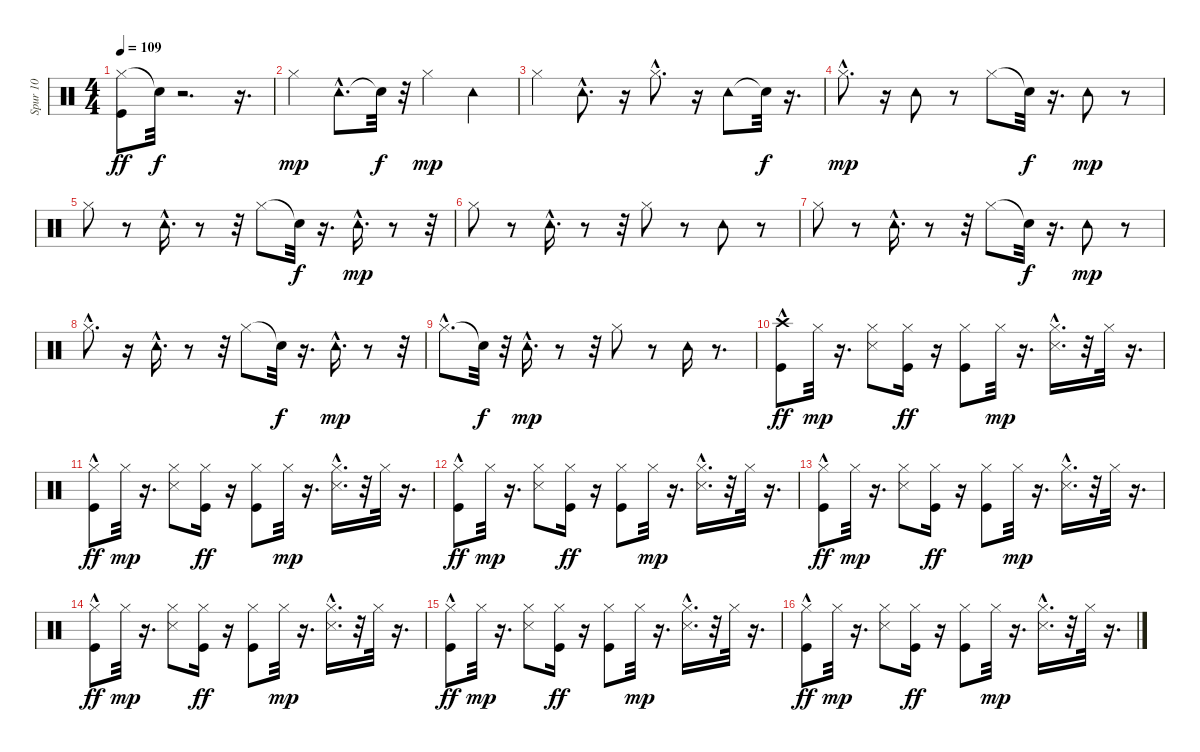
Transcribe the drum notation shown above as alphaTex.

\track ("Spur 10" "Spur 10") {instrument percussion}
\staff {score}
\articulation defaults
\ts (4 4)
\tempo 109
\clef neutral
\ks c
("Hi-Hat (closed)" "Kick (hit)").8{dy ff} "Snare (hit)"{t}.32{dy f} r.2{d} r.16{d} |
"Hi-Hat (closed)".4{dy mp} "Tambourine (hit)"{hac}.8{d} "Snare (hit)"{t}.32{dy f} r.32 "Hi-Hat (closed)".4{dy mp} "Tambourine (hit)".4 |
"Hi-Hat (closed)".4 "Tambourine (hit)"{hac}.8{d} r.16 "Hi-Hat (closed)"{hac}.8{d} r.16 "Tambourine (hit)".8 "Snare (hit)"{t}.32{dy f} r.16{d} |
"Hi-Hat (closed)"{hac}.8{d dy mp} r.16 "Tambourine (hit)".8 r.8 "Hi-Hat (closed)".8 "Snare (hit)"{t}.32{dy f} r.16{d} "Tambourine (hit)".8{dy mp} r.8 |
"Hi-Hat (closed)".8 r.8 "Tambourine (hit)"{hac}.16{d} r.8 r.32 "Hi-Hat (closed)".8 "Snare (hit)"{t}.32{dy f} r.16{d} "Tambourine (hit)"{hac}.16{d dy mp} r.8 r.32 |
"Hi-Hat (closed)".8 r.8 "Tambourine (hit)"{hac}.16{d} r.8 r.32 "Hi-Hat (closed)".8 r.8 "Tambourine (hit)".8 r.8 |
"Hi-Hat (closed)".8 r.8 "Tambourine (hit)"{hac}.16{d} r.8 r.32 "Hi-Hat (closed)".8 "Snare (hit)"{t}.32{dy f} r.16{d} "Tambourine (hit)".8{dy mp} r.8 |
"Hi-Hat (closed)"{hac}.8{d} r.16 "Tambourine (hit)"{hac}.16{d} r.8 r.32 "Hi-Hat (closed)".8 "Snare (hit)"{t}.32{dy f} r.16{d} "Tambourine (hit)"{hac}.16{d dy mp} r.8 r.32 |
"Hi-Hat (closed)"{hac}.8{d} "Snare (hit)"{t}.32{dy f} r.32 "Tambourine (hit)"{hac}.16{d dy mp} r.8 r.32 "Hi-Hat (closed)".8 r.8 "Tambourine (hit)".16 r.8{d} |
("Crash high (hit)" "Kick (hit)"{hac}).8{dy ff} "Hi-Hat (closed)".32{dy mp} r.16{d} ("Hi-Hat (closed)" "Snare (side stick) 3").8 ("Hi-Hat (closed)" "Kick (hit)").16{dy ff} r.16 ("Hi-Hat (closed)" "Kick (hit)").8 "Hi-Hat (closed)".32{dy mp} r.16{d} ("Hi-Hat (closed)" "Snare (side stick) 3"{hac}).16{d} r.32 "Hi-Hat (closed)".32 r.16{d} |
("Hi-Hat (closed)" "Kick (hit)"{hac}).8{dy ff} "Hi-Hat (closed)".32{dy mp} r.16{d} ("Hi-Hat (closed)" "Snare (side stick) 3").8 ("Hi-Hat (closed)" "Kick (hit)").16{dy ff} r.16 ("Hi-Hat (closed)" "Kick (hit)").8 "Hi-Hat (closed)".32{dy mp} r.16{d} ("Hi-Hat (closed)" "Snare (side stick) 3"{hac}).16{d} r.32 "Hi-Hat (closed)".32 r.16{d} |
("Hi-Hat (closed)" "Kick (hit)"{hac}).8{dy ff} "Hi-Hat (closed)".32{dy mp} r.16{d} ("Hi-Hat (closed)" "Snare (side stick) 3").8 ("Hi-Hat (closed)" "Kick (hit)").16{dy ff} r.16 ("Hi-Hat (closed)" "Kick (hit)").8 "Hi-Hat (closed)".32{dy mp} r.16{d} ("Hi-Hat (closed)" "Snare (side stick) 3"{hac}).16{d} r.32 "Hi-Hat (closed)".32 r.16{d} |
("Hi-Hat (closed)" "Kick (hit)"{hac}).8{dy ff} "Hi-Hat (closed)".32{dy mp} r.16{d} ("Hi-Hat (closed)" "Snare (side stick) 3").8 ("Hi-Hat (closed)" "Kick (hit)").16{dy ff} r.16 ("Hi-Hat (closed)" "Kick (hit)").8 "Hi-Hat (closed)".32{dy mp} r.16{d} ("Hi-Hat (closed)" "Snare (side stick) 3"{hac}).16{d} r.32 "Hi-Hat (closed)".32 r.16{d} |
("Hi-Hat (closed)" "Kick (hit)"{hac}).8{dy ff} "Hi-Hat (closed)".32{dy mp} r.16{d} ("Hi-Hat (closed)" "Snare (side stick) 3").8 ("Hi-Hat (closed)" "Kick (hit)").16{dy ff} r.16 ("Hi-Hat (closed)" "Kick (hit)").8 "Hi-Hat (closed)".32{dy mp} r.16{d} ("Hi-Hat (closed)" "Snare (side stick) 3"{hac}).16{d} r.32 "Hi-Hat (closed)".32 r.16{d} |
("Hi-Hat (closed)" "Kick (hit)"{hac}).8{dy ff} "Hi-Hat (closed)".32{dy mp} r.16{d} ("Hi-Hat (closed)" "Snare (side stick) 3").8 ("Hi-Hat (closed)" "Kick (hit)").16{dy ff} r.16 ("Hi-Hat (closed)" "Kick (hit)").8 "Hi-Hat (closed)".32{dy mp} r.16{d} ("Hi-Hat (closed)" "Snare (side stick) 3"{hac}).16{d} r.32 "Hi-Hat (closed)".32 r.16{d} |
("Hi-Hat (closed)" "Kick (hit)"{hac}).8{dy ff} "Hi-Hat (closed)".32{dy mp} r.16{d} ("Hi-Hat (closed)" "Snare (side stick) 3").8 ("Hi-Hat (closed)" "Kick (hit)").16{dy ff} r.16 ("Hi-Hat (closed)" "Kick (hit)").8 "Hi-Hat (closed)".32{dy mp} r.16{d} ("Hi-Hat (closed)" "Snare (side stick) 3"{hac}).16{d} r.32 "Hi-Hat (closed)".32 r.16{d}
